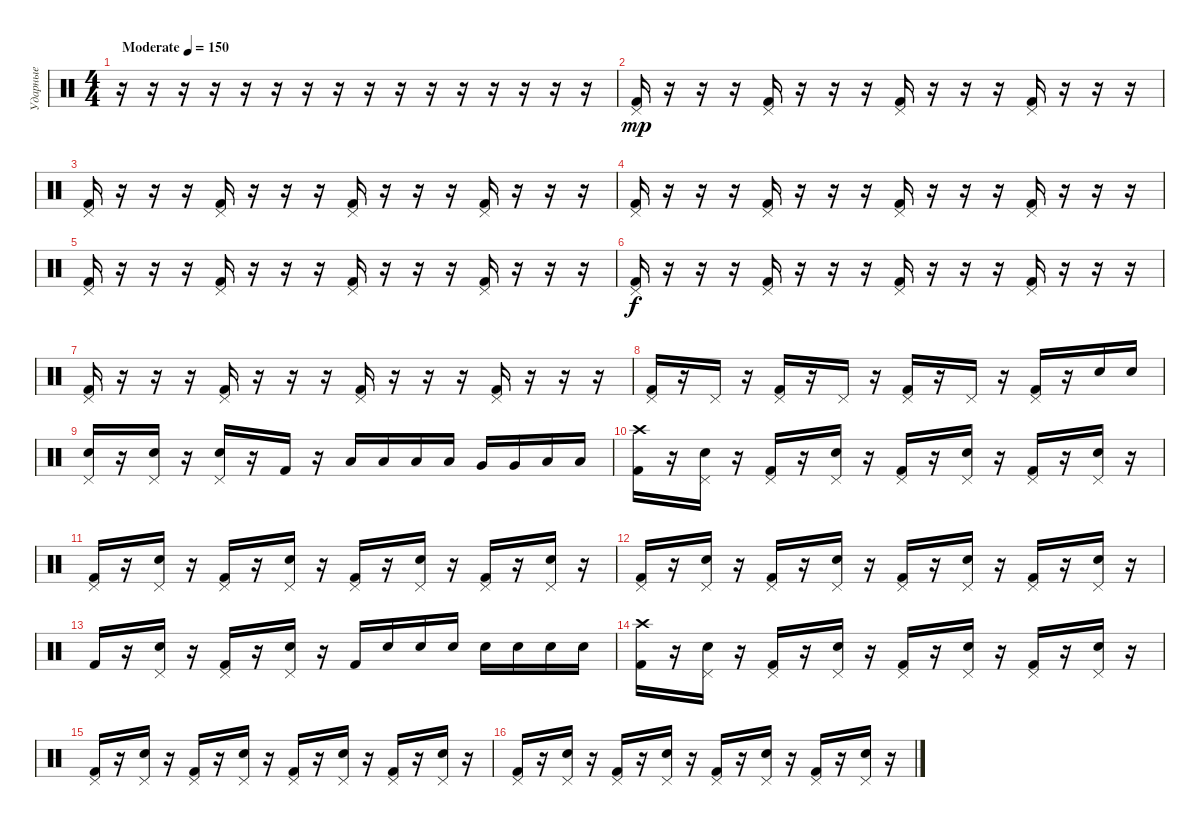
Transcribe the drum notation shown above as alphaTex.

\track ("Ударные" "Ударные") {instrument percussion}
\staff {score}
\articulation defaults
\ts (4 4)
\tempo (150 "Moderate")
\clef neutral
\ks c
r.16{dy mp} r.16 r.16 r.16 r.16 r.16 r.16 r.16 r.16 r.16 r.16 r.16 r.16 r.16 r.16 r.16 |
("Kick (hit) 2" "Pedal Hi-Hat (hit)").16 r.16 r.16 r.16 ("Kick (hit) 2" "Pedal Hi-Hat (hit)").16 r.16 r.16 r.16 ("Kick (hit) 2" "Pedal Hi-Hat (hit)").16 r.16 r.16 r.16 ("Kick (hit) 2" "Pedal Hi-Hat (hit)").16 r.16 r.16 r.16 |
("Kick (hit) 2" "Pedal Hi-Hat (hit)").16 r.16 r.16 r.16 ("Kick (hit) 2" "Pedal Hi-Hat (hit)").16 r.16 r.16 r.16 ("Kick (hit) 2" "Pedal Hi-Hat (hit)").16 r.16 r.16 r.16 ("Kick (hit) 2" "Pedal Hi-Hat (hit)").16 r.16 r.16 r.16 |
("Kick (hit) 2" "Pedal Hi-Hat (hit)").16 r.16 r.16 r.16 ("Kick (hit) 2" "Pedal Hi-Hat (hit)").16 r.16 r.16 r.16 ("Kick (hit) 2" "Pedal Hi-Hat (hit)").16 r.16 r.16 r.16 ("Kick (hit) 2" "Pedal Hi-Hat (hit)").16 r.16 r.16 r.16 |
("Kick (hit) 2" "Pedal Hi-Hat (hit)").16 r.16 r.16 r.16 ("Kick (hit) 2" "Pedal Hi-Hat (hit)").16 r.16 r.16 r.16 ("Kick (hit) 2" "Pedal Hi-Hat (hit)").16 r.16 r.16 r.16 ("Kick (hit) 2" "Pedal Hi-Hat (hit)").16 r.16 r.16 r.16 |
("Kick (hit) 2" "Pedal Hi-Hat (hit)").16{dy f} r.16 r.16 r.16 ("Kick (hit) 2" "Pedal Hi-Hat (hit)").16 r.16 r.16 r.16 ("Kick (hit) 2" "Pedal Hi-Hat (hit)").16 r.16 r.16 r.16 ("Kick (hit) 2" "Pedal Hi-Hat (hit)").16 r.16 r.16 r.16 |
("Kick (hit) 2" "Pedal Hi-Hat (hit)").16 r.16 r.16 r.16 ("Kick (hit) 2" "Pedal Hi-Hat (hit)").16 r.16 r.16 r.16 ("Kick (hit) 2" "Pedal Hi-Hat (hit)").16 r.16 r.16 r.16 ("Kick (hit) 2" "Pedal Hi-Hat (hit)").16 r.16 r.16 r.16 |
("Kick (hit) 2" "Pedal Hi-Hat (hit)").16 r.16 "Pedal Hi-Hat (hit)".16 r.16 ("Kick (hit) 2" "Pedal Hi-Hat (hit)").16 r.16 "Pedal Hi-Hat (hit)".16 r.16 ("Kick (hit) 2" "Pedal Hi-Hat (hit)").16 r.16 "Pedal Hi-Hat (hit)".16 r.16 ("Kick (hit) 2" "Pedal Hi-Hat (hit)").16 r.16 "Electric Snare (hit)".16 "Electric Snare (hit)".16 |
("Electric Snare (hit)" "Pedal Hi-Hat (hit)").16 r.16 ("Electric Snare (hit)" "Pedal Hi-Hat (hit)").16 r.16 ("Electric Snare (hit)" "Pedal Hi-Hat (hit)").16 r.16 "Kick (hit) 2".16 r.16 "Low Tom (hit)".16 "Low Tom (hit)".16 "Low Tom (hit)".16 "Low Tom (hit)".16 "Very Low Tom (hit)".16 "Very Low Tom (hit)".16 "Low Floor Tom (hit)".16 "Low Floor Tom (hit)".16 |
("Kick (hit) 2" "Crash high (hit)").16 r.16 ("Electric Snare (hit)" "Pedal Hi-Hat (hit)").16 r.16 ("Kick (hit) 2" "Pedal Hi-Hat (hit)").16 r.16 ("Electric Snare (hit)" "Pedal Hi-Hat (hit)").16 r.16 ("Kick (hit) 2" "Pedal Hi-Hat (hit)").16 r.16 ("Electric Snare (hit)" "Pedal Hi-Hat (hit)").16 r.16 ("Kick (hit) 2" "Pedal Hi-Hat (hit)").16 r.16 ("Electric Snare (hit)" "Pedal Hi-Hat (hit)").16 r.16 |
("Kick (hit) 2" "Pedal Hi-Hat (hit)").16 r.16 ("Electric Snare (hit)" "Pedal Hi-Hat (hit)").16 r.16 ("Kick (hit) 2" "Pedal Hi-Hat (hit)").16 r.16 ("Electric Snare (hit)" "Pedal Hi-Hat (hit)").16 r.16 ("Kick (hit) 2" "Pedal Hi-Hat (hit)").16 r.16 ("Electric Snare (hit)" "Pedal Hi-Hat (hit)").16 r.16 ("Kick (hit) 2" "Pedal Hi-Hat (hit)").16 r.16 ("Electric Snare (hit)" "Pedal Hi-Hat (hit)").16 r.16 |
("Kick (hit) 2" "Pedal Hi-Hat (hit)").16 r.16 ("Electric Snare (hit)" "Pedal Hi-Hat (hit)").16 r.16 ("Kick (hit) 2" "Pedal Hi-Hat (hit)").16 r.16 ("Electric Snare (hit)" "Pedal Hi-Hat (hit)").16 r.16 ("Kick (hit) 2" "Pedal Hi-Hat (hit)").16 r.16 ("Electric Snare (hit)" "Pedal Hi-Hat (hit)").16 r.16 ("Kick (hit) 2" "Pedal Hi-Hat (hit)").16 r.16 ("Electric Snare (hit)" "Pedal Hi-Hat (hit)").16 r.16 |
"Kick (hit) 2".16 r.16 ("Electric Snare (hit)" "Pedal Hi-Hat (hit)").16 r.16 ("Kick (hit) 2" "Pedal Hi-Hat (hit)").16 r.16 ("Electric Snare (hit)" "Pedal Hi-Hat (hit)").16 r.16 "Kick (hit) 2".16 "Electric Snare (hit)".16 "Electric Snare (hit)".16 "Electric Snare (hit)".16 "Electric Snare (hit)".16 "Electric Snare (hit)".16 "Electric Snare (hit)".16 "Electric Snare (hit)".16 |
("Kick (hit) 2" "Crash high (hit)").16 r.16 ("Electric Snare (hit)" "Pedal Hi-Hat (hit)").16 r.16 ("Kick (hit) 2" "Pedal Hi-Hat (hit)").16 r.16 ("Electric Snare (hit)" "Pedal Hi-Hat (hit)").16 r.16 ("Kick (hit) 2" "Pedal Hi-Hat (hit)").16 r.16 ("Electric Snare (hit)" "Pedal Hi-Hat (hit)").16 r.16 ("Kick (hit) 2" "Pedal Hi-Hat (hit)").16 r.16 ("Electric Snare (hit)" "Pedal Hi-Hat (hit)").16 r.16 |
("Kick (hit) 2" "Pedal Hi-Hat (hit)").16 r.16 ("Electric Snare (hit)" "Pedal Hi-Hat (hit)").16 r.16 ("Kick (hit) 2" "Pedal Hi-Hat (hit)").16 r.16 ("Electric Snare (hit)" "Pedal Hi-Hat (hit)").16 r.16 ("Kick (hit) 2" "Pedal Hi-Hat (hit)").16 r.16 ("Electric Snare (hit)" "Pedal Hi-Hat (hit)").16 r.16 ("Kick (hit) 2" "Pedal Hi-Hat (hit)").16 r.16 ("Electric Snare (hit)" "Pedal Hi-Hat (hit)").16 r.16 |
("Kick (hit) 2" "Pedal Hi-Hat (hit)").16 r.16 ("Electric Snare (hit)" "Pedal Hi-Hat (hit)").16 r.16 ("Kick (hit) 2" "Pedal Hi-Hat (hit)").16 r.16 ("Electric Snare (hit)" "Pedal Hi-Hat (hit)").16 r.16 ("Kick (hit) 2" "Pedal Hi-Hat (hit)").16 r.16 ("Electric Snare (hit)" "Pedal Hi-Hat (hit)").16 r.16 ("Kick (hit) 2" "Pedal Hi-Hat (hit)").16 r.16 ("Electric Snare (hit)" "Pedal Hi-Hat (hit)").16 r.16
